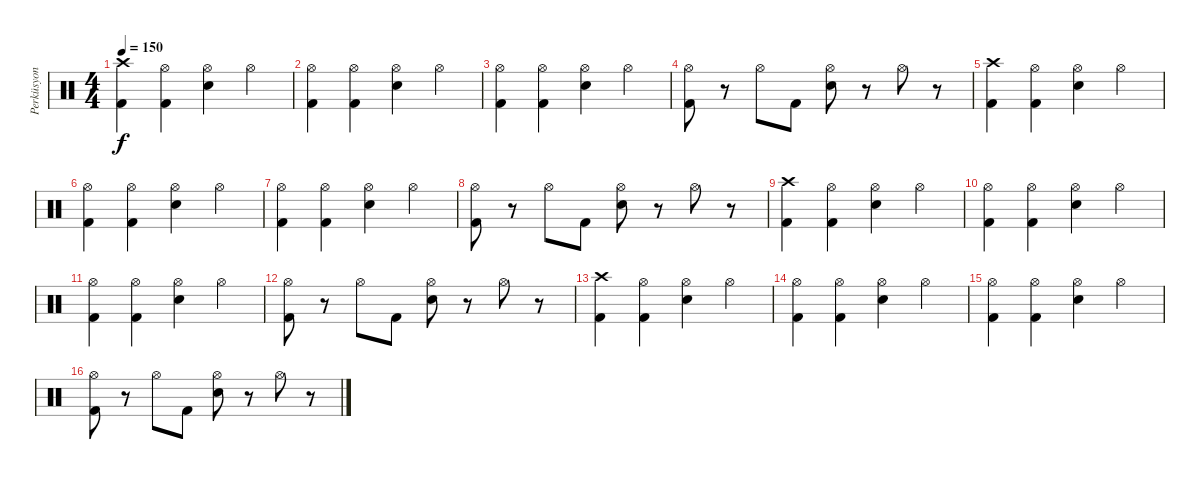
\track ("Perküsyon" "Perküsyon") {instrument percussion}
\staff {score}
\articulation defaults
\ts (4 4)
\tempo 150
\clef neutral
\ks c
("Crash high (hit)" "Kick (hit) 2").4{dy f} ("Hi-Hat (open)" "Kick (hit) 2").4 ("Hi-Hat (open)" "Electric Snare (hit)").4 "Hi-Hat (open)".4 |
("Hi-Hat (open)" "Kick (hit) 2").4 ("Hi-Hat (open)" "Kick (hit) 2").4 ("Hi-Hat (open)" "Electric Snare (hit)").4 "Hi-Hat (open)".4 |
("Hi-Hat (open)" "Kick (hit) 2").4 ("Hi-Hat (open)" "Kick (hit) 2").4 ("Hi-Hat (open)" "Electric Snare (hit)").4 "Hi-Hat (open)".4 |
("Hi-Hat (open)" "Kick (hit) 2").8 r.8 "Hi-Hat (open)".8 "Kick (hit) 2".8 ("Hi-Hat (open)" "Electric Snare (hit)").8 r.8 "Hi-Hat (open)".8 r.8 |
("Crash high (hit)" "Kick (hit) 2").4 ("Hi-Hat (open)" "Kick (hit) 2").4 ("Hi-Hat (open)" "Electric Snare (hit)").4 "Hi-Hat (open)".4 |
("Hi-Hat (open)" "Kick (hit) 2").4 ("Hi-Hat (open)" "Kick (hit) 2").4 ("Hi-Hat (open)" "Electric Snare (hit)").4 "Hi-Hat (open)".4 |
("Hi-Hat (open)" "Kick (hit) 2").4 ("Hi-Hat (open)" "Kick (hit) 2").4 ("Hi-Hat (open)" "Electric Snare (hit)").4 "Hi-Hat (open)".4 |
("Hi-Hat (open)" "Kick (hit) 2").8 r.8 "Hi-Hat (open)".8 "Kick (hit) 2".8 ("Hi-Hat (open)" "Electric Snare (hit)").8 r.8 "Hi-Hat (open)".8 r.8 |
("Crash high (hit)" "Kick (hit) 2").4 ("Hi-Hat (open)" "Kick (hit) 2").4 ("Hi-Hat (open)" "Electric Snare (hit)").4 "Hi-Hat (open)".4 |
("Hi-Hat (open)" "Kick (hit) 2").4 ("Hi-Hat (open)" "Kick (hit) 2").4 ("Hi-Hat (open)" "Electric Snare (hit)").4 "Hi-Hat (open)".4 |
("Hi-Hat (open)" "Kick (hit) 2").4 ("Hi-Hat (open)" "Kick (hit) 2").4 ("Hi-Hat (open)" "Electric Snare (hit)").4 "Hi-Hat (open)".4 |
("Hi-Hat (open)" "Kick (hit) 2").8 r.8 "Hi-Hat (open)".8 "Kick (hit) 2".8 ("Hi-Hat (open)" "Electric Snare (hit)").8 r.8 "Hi-Hat (open)".8 r.8 |
("Crash high (hit)" "Kick (hit) 2").4 ("Hi-Hat (open)" "Kick (hit) 2").4 ("Hi-Hat (open)" "Electric Snare (hit)").4 "Hi-Hat (open)".4 |
("Hi-Hat (open)" "Kick (hit) 2").4 ("Hi-Hat (open)" "Kick (hit) 2").4 ("Hi-Hat (open)" "Electric Snare (hit)").4 "Hi-Hat (open)".4 |
("Hi-Hat (open)" "Kick (hit) 2").4 ("Hi-Hat (open)" "Kick (hit) 2").4 ("Hi-Hat (open)" "Electric Snare (hit)").4 "Hi-Hat (open)".4 |
("Hi-Hat (open)" "Kick (hit) 2").8 r.8 "Hi-Hat (open)".8 "Kick (hit) 2".8 ("Hi-Hat (open)" "Electric Snare (hit)").8 r.8 "Hi-Hat (open)".8 r.8
